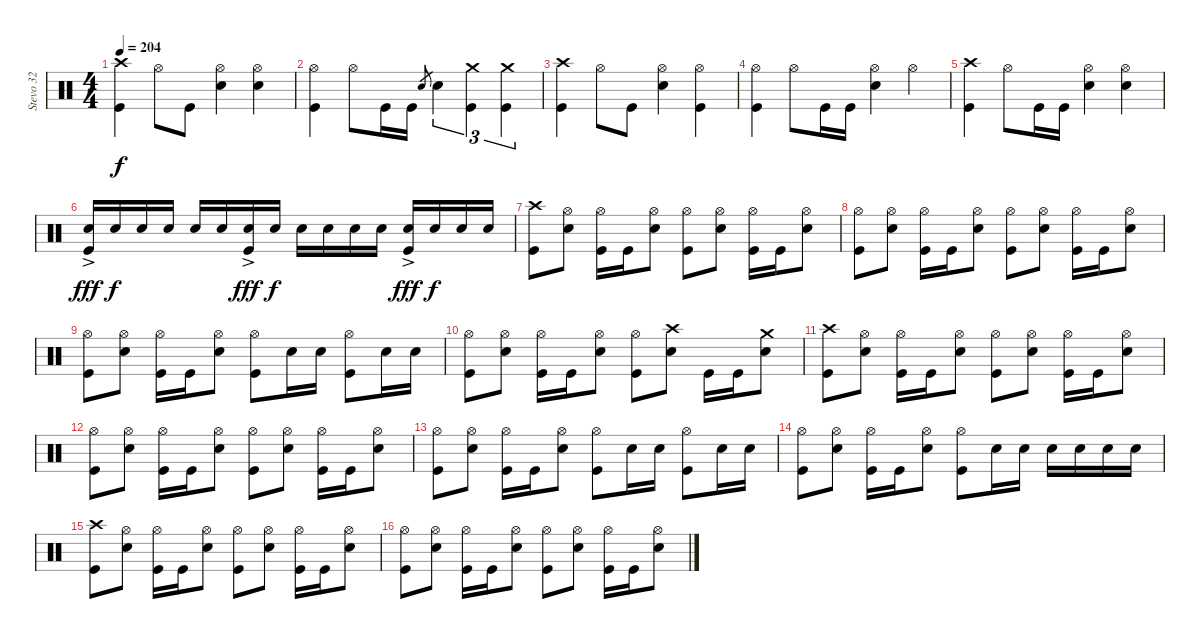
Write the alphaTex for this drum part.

\track ("Stevo 32" "Stevo 32") {instrument percussion}
\staff {score}
\articulation defaults
\ts (4 4)
\tempo 204
\clef neutral
\ks c
("Crash high (hit)" "Kick (hit)").4{dy f} "Hi-Hat (open)".8 "Kick (hit)".8 ("Hi-Hat (open)" "Electric Snare (hit)").4 ("Hi-Hat (open)" "Electric Snare (hit)").4 |
("Hi-Hat (open)" "Kick (hit)").4 "Hi-Hat (open)".8 "Kick (hit)".16 "Kick (hit)".16 "Electric Snare (hit)".8{gr} "Electric Snare (hit)".4{tu (3 2)} ("Crash medium (hit)" "Kick (hit)").4{tu (3 2)} ("Crash medium (hit)" "Kick (hit)").4{tu (3 2)} |
("Crash high (hit)" "Kick (hit)").4 "Hi-Hat (open)".8 "Kick (hit)".8 ("Hi-Hat (open)" "Electric Snare (hit)").4 ("Hi-Hat (open)" "Kick (hit)").4 |
("Hi-Hat (open)" "Kick (hit)").4 "Hi-Hat (open)".8 "Kick (hit)".16 "Kick (hit)".16 ("Hi-Hat (open)" "Electric Snare (hit)").4 "Hi-Hat (open)".4 |
("Crash high (hit)" "Kick (hit)").4 "Hi-Hat (open)".8 "Kick (hit)".16 "Kick (hit)".16 ("Hi-Hat (open)" "Electric Snare (hit)").4 ("Hi-Hat (open)" "Electric Snare (hit)").4 |
("Electric Snare (hit)"{ac} "Kick (hit)").16{dy fff} "Electric Snare (hit)".16{dy f} "Electric Snare (hit)".16 "Electric Snare (hit)".16 "Electric Snare (hit)".16 "Electric Snare (hit)".16 ("Electric Snare (hit)"{ac} "Kick (hit)").16{dy fff} "Electric Snare (hit)".16{dy f} "Electric Snare (hit)".16 "Electric Snare (hit)".16 "Electric Snare (hit)".16 "Electric Snare (hit)".16 ("Electric Snare (hit)"{ac} "Kick (hit)").16{dy fff} "Electric Snare (hit)".16{dy f} "Electric Snare (hit)".16 "Electric Snare (hit)".16 |
("Crash high (hit)" "Kick (hit)").8 ("Hi-Hat (open)" "Electric Snare (hit)").8 ("Hi-Hat (open)" "Kick (hit)").16 "Kick (hit)".16 ("Hi-Hat (open)" "Electric Snare (hit)").8 ("Hi-Hat (open)" "Kick (hit)").8 ("Hi-Hat (open)" "Electric Snare (hit)").8 ("Hi-Hat (open)" "Kick (hit)").16 "Kick (hit)".16 ("Hi-Hat (open)" "Electric Snare (hit)").8 |
("Hi-Hat (open)" "Kick (hit)").8 ("Hi-Hat (open)" "Electric Snare (hit)").8 ("Hi-Hat (open)" "Kick (hit)").16 "Kick (hit)".16 ("Hi-Hat (open)" "Electric Snare (hit)").8 ("Hi-Hat (open)" "Kick (hit)").8 ("Hi-Hat (open)" "Electric Snare (hit)").8 ("Hi-Hat (open)" "Kick (hit)").16 "Kick (hit)".16 ("Hi-Hat (open)" "Electric Snare (hit)").8 |
("Hi-Hat (open)" "Kick (hit)").8 ("Hi-Hat (open)" "Electric Snare (hit)").8 ("Hi-Hat (open)" "Kick (hit)").16 "Kick (hit)".16 ("Hi-Hat (open)" "Electric Snare (hit)").8 ("Hi-Hat (open)" "Kick (hit)").8 "Electric Snare (hit)".16 "Electric Snare (hit)".16 ("Hi-Hat (open)" "Kick (hit)").8 "Electric Snare (hit)".16 "Electric Snare (hit)".16 |
("Hi-Hat (open)" "Kick (hit)").8 ("Hi-Hat (open)" "Electric Snare (hit)").8 ("Hi-Hat (open)" "Kick (hit)").16 "Kick (hit)".16 ("Hi-Hat (open)" "Electric Snare (hit)").8 ("Hi-Hat (open)" "Kick (hit)").8 ("Crash high (hit)" "Electric Snare (hit)").8 "Kick (hit)".16 "Kick (hit)".16 ("Crash medium (hit)" "Electric Snare (hit)").8 |
("Crash high (hit)" "Kick (hit)").8 ("Hi-Hat (open)" "Electric Snare (hit)").8 ("Hi-Hat (open)" "Kick (hit)").16 "Kick (hit)".16 ("Hi-Hat (open)" "Electric Snare (hit)").8 ("Hi-Hat (open)" "Kick (hit)").8 ("Hi-Hat (open)" "Electric Snare (hit)").8 ("Hi-Hat (open)" "Kick (hit)").16 "Kick (hit)".16 ("Hi-Hat (open)" "Electric Snare (hit)").8 |
("Hi-Hat (open)" "Kick (hit)").8 ("Hi-Hat (open)" "Electric Snare (hit)").8 ("Hi-Hat (open)" "Kick (hit)").16 "Kick (hit)".16 ("Hi-Hat (open)" "Electric Snare (hit)").8 ("Hi-Hat (open)" "Kick (hit)").8 ("Hi-Hat (open)" "Electric Snare (hit)").8 ("Hi-Hat (open)" "Kick (hit)").16 "Kick (hit)".16 ("Hi-Hat (open)" "Electric Snare (hit)").8 |
("Hi-Hat (open)" "Kick (hit)").8 ("Hi-Hat (open)" "Electric Snare (hit)").8 ("Hi-Hat (open)" "Kick (hit)").16 "Kick (hit)".16 ("Hi-Hat (open)" "Electric Snare (hit)").8 ("Hi-Hat (open)" "Kick (hit)").8 "Electric Snare (hit)".16 "Electric Snare (hit)".16 ("Hi-Hat (open)" "Kick (hit)").8 "Electric Snare (hit)".16 "Electric Snare (hit)".16 |
("Hi-Hat (open)" "Kick (hit)").8 ("Hi-Hat (open)" "Electric Snare (hit)").8 ("Hi-Hat (open)" "Kick (hit)").16 "Kick (hit)".16 ("Hi-Hat (open)" "Electric Snare (hit)").8 ("Hi-Hat (open)" "Kick (hit)").8 "Electric Snare (hit)".16 "Electric Snare (hit)".16 "Electric Snare (hit)".16 "Electric Snare (hit)".16 "Electric Snare (hit)".16 "Electric Snare (hit)".16 |
("Crash high (hit)" "Kick (hit)").8 ("Hi-Hat (open)" "Electric Snare (hit)").8 ("Hi-Hat (open)" "Kick (hit)").16 "Kick (hit)".16 ("Hi-Hat (open)" "Electric Snare (hit)").8 ("Hi-Hat (open)" "Kick (hit)").8 ("Hi-Hat (open)" "Electric Snare (hit)").8 ("Hi-Hat (open)" "Kick (hit)").16 "Kick (hit)".16 ("Hi-Hat (open)" "Electric Snare (hit)").8 |
("Hi-Hat (open)" "Kick (hit)").8 ("Hi-Hat (open)" "Electric Snare (hit)").8 ("Hi-Hat (open)" "Kick (hit)").16 "Kick (hit)".16 ("Hi-Hat (open)" "Electric Snare (hit)").8 ("Hi-Hat (open)" "Kick (hit)").8 ("Hi-Hat (open)" "Electric Snare (hit)").8 ("Hi-Hat (open)" "Kick (hit)").16 "Kick (hit)".16 ("Hi-Hat (open)" "Electric Snare (hit)").8
